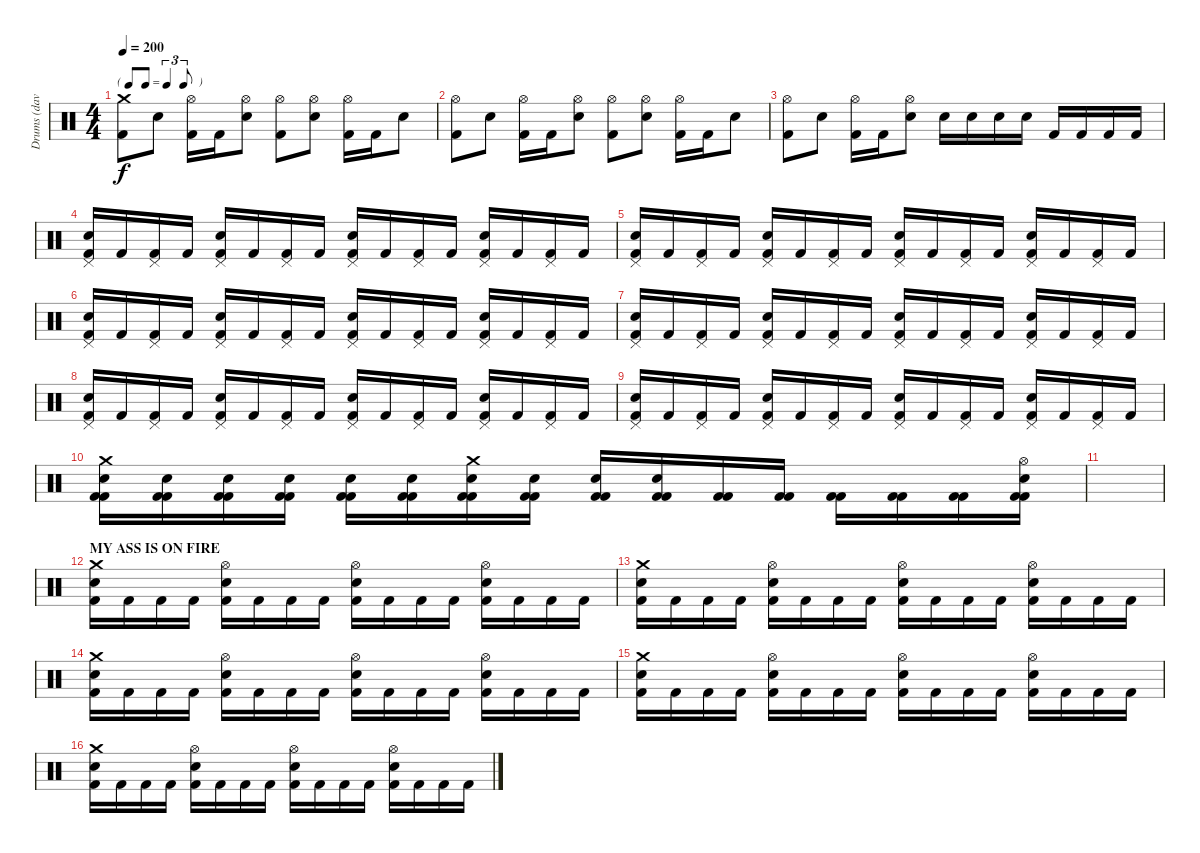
\track ("Drums (dave)" "Drums (dav") {instrument percussion}
\staff {score}
\articulation defaults
\ts (4 4)
\tf triplet8th
\tempo 200
\clef neutral
\ks c
("Crash medium (hit)" "Kick (hit) 2").8{dy f} "Snare (hit) 2".8 ("Hi-Hat (open)" "Kick (hit) 2").16 "Kick (hit) 2".16 ("Hi-Hat (open)" "Snare (hit) 2").8 ("Hi-Hat (open)" "Kick (hit) 2").8 ("Hi-Hat (open)" "Snare (hit) 2").8 ("Hi-Hat (open)" "Kick (hit) 2").16 "Kick (hit) 2".16 "Snare (hit) 2".8 |
("Hi-Hat (open)" "Kick (hit) 2").8 "Snare (hit) 2".8 ("Hi-Hat (open)" "Kick (hit) 2").16 "Kick (hit) 2".16 ("Hi-Hat (open)" "Snare (hit) 2").8 ("Hi-Hat (open)" "Kick (hit) 2").8 ("Hi-Hat (open)" "Snare (hit) 2").8 ("Hi-Hat (open)" "Kick (hit) 2").16 "Kick (hit) 2".16 "Snare (hit) 2".8 |
("Hi-Hat (open)" "Kick (hit) 2").8 "Snare (hit) 2".8 ("Hi-Hat (open)" "Kick (hit) 2").16 "Kick (hit) 2".16 ("Hi-Hat (open)" "Snare (hit) 2").8 "Snare (hit) 2".16 "Snare (hit) 2".16 "Snare (hit) 2".16 "Snare (hit) 2".16 "Kick (hit) 2".16 "Kick (hit) 2".16 "Kick (hit) 2".16 "Kick (hit) 2".16 |
("Pedal Hi-Hat (hit)" "Snare (hit) 2" "Kick (hit) 2").16 "Kick (hit) 2".16 ("Pedal Hi-Hat (hit)" "Kick (hit) 2").16 "Kick (hit) 2".16 ("Pedal Hi-Hat (hit)" "Snare (hit) 2" "Kick (hit) 2").16 "Kick (hit) 2".16 ("Pedal Hi-Hat (hit)" "Kick (hit) 2").16 "Kick (hit) 2".16 ("Pedal Hi-Hat (hit)" "Snare (hit) 2" "Kick (hit) 2").16 "Kick (hit) 2".16 ("Pedal Hi-Hat (hit)" "Kick (hit) 2").16 "Kick (hit) 2".16 ("Pedal Hi-Hat (hit)" "Snare (hit) 2" "Kick (hit) 2").16 "Kick (hit) 2".16 ("Pedal Hi-Hat (hit)" "Kick (hit) 2").16 "Kick (hit) 2".16 |
("Pedal Hi-Hat (hit)" "Snare (hit) 2" "Kick (hit) 2").16 "Kick (hit) 2".16 ("Pedal Hi-Hat (hit)" "Kick (hit) 2").16 "Kick (hit) 2".16 ("Pedal Hi-Hat (hit)" "Snare (hit) 2" "Kick (hit) 2").16 "Kick (hit) 2".16 ("Pedal Hi-Hat (hit)" "Kick (hit) 2").16 "Kick (hit) 2".16 ("Pedal Hi-Hat (hit)" "Snare (hit) 2" "Kick (hit) 2").16 "Kick (hit) 2".16 ("Pedal Hi-Hat (hit)" "Kick (hit) 2").16 "Kick (hit) 2".16 ("Pedal Hi-Hat (hit)" "Snare (hit) 2" "Kick (hit) 2").16 "Kick (hit) 2".16 ("Pedal Hi-Hat (hit)" "Kick (hit) 2").16 "Kick (hit) 2".16 |
("Pedal Hi-Hat (hit)" "Snare (hit) 2" "Kick (hit) 2").16 "Kick (hit) 2".16 ("Pedal Hi-Hat (hit)" "Kick (hit) 2").16 "Kick (hit) 2".16 ("Pedal Hi-Hat (hit)" "Snare (hit) 2" "Kick (hit) 2").16 "Kick (hit) 2".16 ("Pedal Hi-Hat (hit)" "Kick (hit) 2").16 "Kick (hit) 2".16 ("Pedal Hi-Hat (hit)" "Snare (hit) 2" "Kick (hit) 2").16 "Kick (hit) 2".16 ("Pedal Hi-Hat (hit)" "Kick (hit) 2").16 "Kick (hit) 2".16 ("Pedal Hi-Hat (hit)" "Snare (hit) 2" "Kick (hit) 2").16 "Kick (hit) 2".16 ("Pedal Hi-Hat (hit)" "Kick (hit) 2").16 "Kick (hit) 2".16 |
("Pedal Hi-Hat (hit)" "Snare (hit) 2" "Kick (hit) 2").16 "Kick (hit) 2".16 ("Pedal Hi-Hat (hit)" "Kick (hit) 2").16 "Kick (hit) 2".16 ("Pedal Hi-Hat (hit)" "Snare (hit) 2" "Kick (hit) 2").16 "Kick (hit) 2".16 ("Pedal Hi-Hat (hit)" "Kick (hit) 2").16 "Kick (hit) 2".16 ("Pedal Hi-Hat (hit)" "Snare (hit) 2" "Kick (hit) 2").16 "Kick (hit) 2".16 ("Pedal Hi-Hat (hit)" "Kick (hit) 2").16 "Kick (hit) 2".16 ("Pedal Hi-Hat (hit)" "Snare (hit) 2" "Kick (hit) 2").16 "Kick (hit) 2".16 ("Pedal Hi-Hat (hit)" "Kick (hit) 2").16 "Kick (hit) 2".16 |
("Pedal Hi-Hat (hit)" "Snare (hit) 2" "Kick (hit) 2").16 "Kick (hit) 2".16 ("Pedal Hi-Hat (hit)" "Kick (hit) 2").16 "Kick (hit) 2".16 ("Pedal Hi-Hat (hit)" "Snare (hit) 2" "Kick (hit) 2").16 "Kick (hit) 2".16 ("Pedal Hi-Hat (hit)" "Kick (hit) 2").16 "Kick (hit) 2".16 ("Pedal Hi-Hat (hit)" "Snare (hit) 2" "Kick (hit) 2").16 "Kick (hit) 2".16 ("Pedal Hi-Hat (hit)" "Kick (hit) 2").16 "Kick (hit) 2".16 ("Pedal Hi-Hat (hit)" "Snare (hit) 2" "Kick (hit) 2").16 "Kick (hit) 2".16 ("Pedal Hi-Hat (hit)" "Kick (hit) 2").16 "Kick (hit) 2".16 |
("Pedal Hi-Hat (hit)" "Snare (hit) 2" "Kick (hit) 2").16 "Kick (hit) 2".16 ("Pedal Hi-Hat (hit)" "Kick (hit) 2").16 "Kick (hit) 2".16 ("Pedal Hi-Hat (hit)" "Snare (hit) 2" "Kick (hit) 2").16 "Kick (hit) 2".16 ("Pedal Hi-Hat (hit)" "Kick (hit) 2").16 "Kick (hit) 2".16 ("Pedal Hi-Hat (hit)" "Snare (hit) 2" "Kick (hit) 2").16 "Kick (hit) 2".16 ("Pedal Hi-Hat (hit)" "Kick (hit) 2").16 "Kick (hit) 2".16 ("Pedal Hi-Hat (hit)" "Snare (hit) 2" "Kick (hit) 2").16 "Kick (hit) 2".16 ("Pedal Hi-Hat (hit)" "Kick (hit) 2").16 "Kick (hit) 2".16 |
("Crash medium (hit)" "Snare (hit) 2" "Kick (hit) 2" "Kick (hit) 2").16 ("Snare (hit) 2" "Kick (hit) 2" "Kick (hit) 2").16 ("Snare (hit) 2" "Kick (hit) 2" "Kick (hit) 2").16 ("Snare (hit) 2" "Kick (hit) 2" "Kick (hit) 2").16 ("Snare (hit) 2" "Kick (hit) 2" "Kick (hit) 2").16 ("Snare (hit) 2" "Kick (hit) 2" "Kick (hit) 2").16 ("Crash medium (hit)" "Snare (hit) 2" "Kick (hit) 2" "Kick (hit) 2").16 ("Snare (hit) 2" "Kick (hit) 2" "Kick (hit) 2").16 ("Snare (hit) 2" "Kick (hit) 2" "Kick (hit) 2").16 ("Snare (hit) 2" "Kick (hit) 2" "Kick (hit) 2").16 ("Kick (hit) 2" "Kick (hit) 2").16 ("Kick (hit) 2" "Kick (hit) 2").16 ("Kick (hit) 2" "Kick (hit) 2").16 ("Kick (hit) 2" "Kick (hit) 2").16 ("Kick (hit) 2" "Kick (hit) 2").16 ("Hi-Hat (open)" "Snare (hit) 2" "Kick (hit) 2" "Kick (hit) 2").16 |
|
\section ("" "MY ASS IS ON FIRE")
("Crash medium (hit)" "Snare (hit) 2" "Kick (hit) 2").16 "Kick (hit) 2".16 "Kick (hit) 2".16 "Kick (hit) 2".16 ("Hi-Hat (open)" "Snare (hit) 2" "Kick (hit) 2").16 "Kick (hit) 2".16 "Kick (hit) 2".16 "Kick (hit) 2".16 ("Hi-Hat (open)" "Snare (hit) 2" "Kick (hit) 2").16 "Kick (hit) 2".16 "Kick (hit) 2".16 "Kick (hit) 2".16 ("Hi-Hat (open)" "Snare (hit) 2" "Kick (hit) 2").16 "Kick (hit) 2".16 "Kick (hit) 2".16 "Kick (hit) 2".16 |
("Crash medium (hit)" "Snare (hit) 2" "Kick (hit) 2").16 "Kick (hit) 2".16 "Kick (hit) 2".16 "Kick (hit) 2".16 ("Hi-Hat (open)" "Snare (hit) 2" "Kick (hit) 2").16 "Kick (hit) 2".16 "Kick (hit) 2".16 "Kick (hit) 2".16 ("Hi-Hat (open)" "Snare (hit) 2" "Kick (hit) 2").16 "Kick (hit) 2".16 "Kick (hit) 2".16 "Kick (hit) 2".16 ("Hi-Hat (open)" "Snare (hit) 2" "Kick (hit) 2").16 "Kick (hit) 2".16 "Kick (hit) 2".16 "Kick (hit) 2".16 |
("Crash medium (hit)" "Snare (hit) 2" "Kick (hit) 2").16 "Kick (hit) 2".16 "Kick (hit) 2".16 "Kick (hit) 2".16 ("Hi-Hat (open)" "Snare (hit) 2" "Kick (hit) 2").16 "Kick (hit) 2".16 "Kick (hit) 2".16 "Kick (hit) 2".16 ("Hi-Hat (open)" "Snare (hit) 2" "Kick (hit) 2").16 "Kick (hit) 2".16 "Kick (hit) 2".16 "Kick (hit) 2".16 ("Hi-Hat (open)" "Snare (hit) 2" "Kick (hit) 2").16 "Kick (hit) 2".16 "Kick (hit) 2".16 "Kick (hit) 2".16 |
("Crash medium (hit)" "Snare (hit) 2" "Kick (hit) 2").16 "Kick (hit) 2".16 "Kick (hit) 2".16 "Kick (hit) 2".16 ("Hi-Hat (open)" "Snare (hit) 2" "Kick (hit) 2").16 "Kick (hit) 2".16 "Kick (hit) 2".16 "Kick (hit) 2".16 ("Hi-Hat (open)" "Snare (hit) 2" "Kick (hit) 2").16 "Kick (hit) 2".16 "Kick (hit) 2".16 "Kick (hit) 2".16 ("Hi-Hat (open)" "Snare (hit) 2" "Kick (hit) 2").16 "Kick (hit) 2".16 "Kick (hit) 2".16 "Kick (hit) 2".16 |
("Crash medium (hit)" "Snare (hit) 2" "Kick (hit) 2").16 "Kick (hit) 2".16 "Kick (hit) 2".16 "Kick (hit) 2".16 ("Hi-Hat (open)" "Snare (hit) 2" "Kick (hit) 2").16 "Kick (hit) 2".16 "Kick (hit) 2".16 "Kick (hit) 2".16 ("Hi-Hat (open)" "Snare (hit) 2" "Kick (hit) 2").16 "Kick (hit) 2".16 "Kick (hit) 2".16 "Kick (hit) 2".16 ("Hi-Hat (open)" "Snare (hit) 2" "Kick (hit) 2").16 "Kick (hit) 2".16 "Kick (hit) 2".16 "Kick (hit) 2".16
